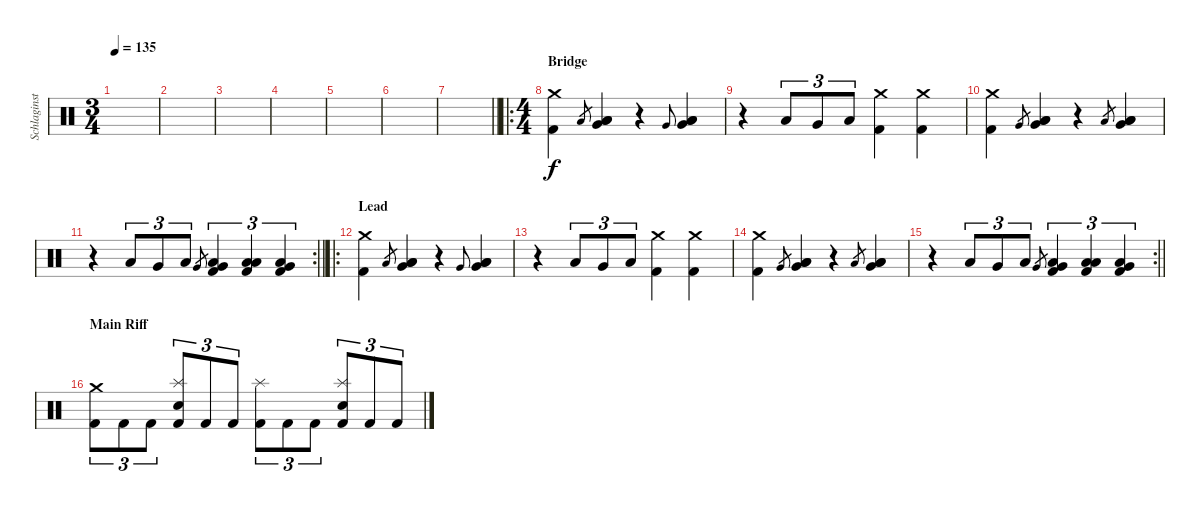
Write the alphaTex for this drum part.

\track ("Schlaginstrumente - Auswahl" "Schlaginst") {instrument percussion}
\staff {score}
\articulation defaults
\ts (3 4)
\tempo 135
\clef neutral
\ks c
|
|
|
|
|
|
\barLineRight lightlight
|
\ro
\ts (4 4)
\section ("" "Bridge")
("Kick (hit) 2" "Crash medium (hit)").4 "Low Tom (hit)".8{gr} ("Low Tom (hit)" "Very Low Tom (hit)" "Low Floor Tom (hit)").4 r.4 "Very Low Tom (hit)".8{gr onbeat} ("Low Floor Tom (hit)" "Low Tom (hit)" "Very Low Tom (hit)").4 |
r.4 "Low Tom (hit)".8{tu (3 2)} "Very Low Tom (hit)".8{tu (3 2)} "Low Floor Tom (hit)".8{tu (3 2)} ("Crash medium (hit)" "Kick (hit) 2").4 ("Crash medium (hit)" "Kick (hit) 2").4 |
("Kick (hit) 2" "Crash medium (hit)").4 "Very Low Tom (hit)".8{gr} ("Low Tom (hit)" "Very Low Tom (hit)" "Low Floor Tom (hit)").4 r.4 "Low Floor Tom (hit)".8{gr} ("Low Floor Tom (hit)" "Low Tom (hit)" "Very Low Tom (hit)").4 |
\rc 2
\barLineRight lightlight
r.4 "Low Tom (hit)".8{tu (3 2)} "Very Low Tom (hit)".8{tu (3 2)} "Low Floor Tom (hit)".8{tu (3 2)} "Very Low Tom (hit)".8{gr} ("Low Tom (hit)" "Very Low Tom (hit)" "Kick (hit) 2").4{tu (3 2)} ("Low Floor Tom (hit)" "Low Tom (hit)" "Kick (hit) 2").4{tu (3 2)} ("Very Low Tom (hit)" "Low Floor Tom (hit)" "Kick (hit) 2").4{tu (3 2)} |
\ro
\section ("" "Lead")
("Kick (hit) 2" "Crash medium (hit)").4 "Low Tom (hit)".8{gr} ("Low Tom (hit)" "Very Low Tom (hit)" "Low Floor Tom (hit)").4 r.4 "Very Low Tom (hit)".8{gr onbeat} ("Low Floor Tom (hit)" "Low Tom (hit)" "Very Low Tom (hit)").4 |
r.4 "Low Tom (hit)".8{tu (3 2)} "Very Low Tom (hit)".8{tu (3 2)} "Low Floor Tom (hit)".8{tu (3 2)} ("Crash medium (hit)" "Kick (hit) 2").4 ("Crash medium (hit)" "Kick (hit) 2").4 |
("Kick (hit) 2" "Crash medium (hit)").4 "Very Low Tom (hit)".8{gr} ("Low Tom (hit)" "Very Low Tom (hit)" "Low Floor Tom (hit)").4 r.4 "Low Floor Tom (hit)".8{gr} ("Low Floor Tom (hit)" "Low Tom (hit)" "Very Low Tom (hit)").4 |
\rc 2
\barLineRight lightlight
r.4 "Low Tom (hit)".8{tu (3 2)} "Very Low Tom (hit)".8{tu (3 2)} "Low Floor Tom (hit)".8{tu (3 2)} "Very Low Tom (hit)".8{gr} ("Low Tom (hit)" "Very Low Tom (hit)" "Kick (hit) 2").4{tu (3 2)} ("Low Floor Tom (hit)" "Low Tom (hit)" "Kick (hit) 2").4{tu (3 2)} ("Very Low Tom (hit)" "Low Floor Tom (hit)" "Kick (hit) 2").4{tu (3 2)} |
\section ("" "Main Riff")
("Crash medium (hit)" "Kick (hit) 2").8{tu (3 2)} "Kick (hit) 2".8{tu (3 2)} "Kick (hit) 2".8{tu (3 2)} ("Splash (hit)" "Electric Snare (hit)" "Kick (hit) 2").8{tu (3 2)} "Kick (hit) 2".8{tu (3 2)} "Kick (hit) 2".8{tu (3 2)} ("Splash (hit)" "Kick (hit) 2").8{tu (3 2)} "Kick (hit) 2".8{tu (3 2)} "Kick (hit) 2".8{tu (3 2)} ("Splash (hit)" "Electric Snare (hit)" "Kick (hit) 2").8{tu (3 2)} "Kick (hit) 2".8{tu (3 2)} "Kick (hit) 2".8{tu (3 2)}
